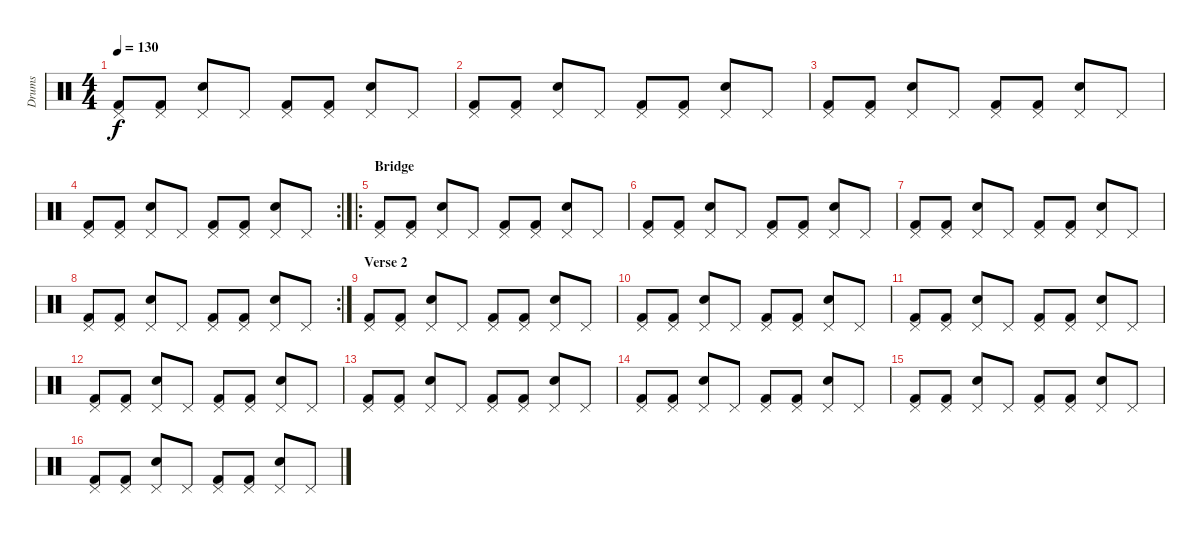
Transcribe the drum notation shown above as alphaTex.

\track ("Drums" "Drums") {instrument percussion}
\staff {score}
\articulation defaults
\ts (4 4)
\tempo 130
\clef neutral
\ks c
("Pedal Hi-Hat (hit)" "Kick (hit) 2").8{dy f} ("Pedal Hi-Hat (hit)" "Kick (hit) 2").8 ("Pedal Hi-Hat (hit)" "Snare (hit) 2").8 "Pedal Hi-Hat (hit)".8 ("Pedal Hi-Hat (hit)" "Kick (hit) 2").8 ("Pedal Hi-Hat (hit)" "Kick (hit) 2").8 ("Pedal Hi-Hat (hit)" "Snare (hit) 2").8 "Pedal Hi-Hat (hit)".8 |
("Pedal Hi-Hat (hit)" "Kick (hit) 2").8 ("Pedal Hi-Hat (hit)" "Kick (hit) 2").8 ("Pedal Hi-Hat (hit)" "Snare (hit) 2").8 "Pedal Hi-Hat (hit)".8 ("Pedal Hi-Hat (hit)" "Kick (hit) 2").8 ("Pedal Hi-Hat (hit)" "Kick (hit) 2").8 ("Pedal Hi-Hat (hit)" "Snare (hit) 2").8 "Pedal Hi-Hat (hit)".8 |
("Pedal Hi-Hat (hit)" "Kick (hit) 2").8 ("Pedal Hi-Hat (hit)" "Kick (hit) 2").8 ("Pedal Hi-Hat (hit)" "Snare (hit) 2").8 "Pedal Hi-Hat (hit)".8 ("Pedal Hi-Hat (hit)" "Kick (hit) 2").8 ("Pedal Hi-Hat (hit)" "Kick (hit) 2").8 ("Pedal Hi-Hat (hit)" "Snare (hit) 2").8 "Pedal Hi-Hat (hit)".8 |
\rc 2
("Pedal Hi-Hat (hit)" "Kick (hit) 2").8 ("Pedal Hi-Hat (hit)" "Kick (hit) 2").8 ("Pedal Hi-Hat (hit)" "Snare (hit) 2").8 "Pedal Hi-Hat (hit)".8 ("Pedal Hi-Hat (hit)" "Kick (hit) 2").8 ("Pedal Hi-Hat (hit)" "Kick (hit) 2").8 ("Pedal Hi-Hat (hit)" "Snare (hit) 2").8 "Pedal Hi-Hat (hit)".8 |
\ro
\section ("" "Bridge")
("Pedal Hi-Hat (hit)" "Kick (hit) 2").8 ("Pedal Hi-Hat (hit)" "Kick (hit) 2").8 ("Pedal Hi-Hat (hit)" "Snare (hit) 2").8 "Pedal Hi-Hat (hit)".8 ("Pedal Hi-Hat (hit)" "Kick (hit) 2").8 ("Pedal Hi-Hat (hit)" "Kick (hit) 2").8 ("Pedal Hi-Hat (hit)" "Snare (hit) 2").8 "Pedal Hi-Hat (hit)".8 |
("Pedal Hi-Hat (hit)" "Kick (hit) 2").8 ("Pedal Hi-Hat (hit)" "Kick (hit) 2").8 ("Pedal Hi-Hat (hit)" "Snare (hit) 2").8 "Pedal Hi-Hat (hit)".8 ("Pedal Hi-Hat (hit)" "Kick (hit) 2").8 ("Pedal Hi-Hat (hit)" "Kick (hit) 2").8 ("Pedal Hi-Hat (hit)" "Snare (hit) 2").8 "Pedal Hi-Hat (hit)".8 |
("Pedal Hi-Hat (hit)" "Kick (hit) 2").8 ("Pedal Hi-Hat (hit)" "Kick (hit) 2").8 ("Pedal Hi-Hat (hit)" "Snare (hit) 2").8 "Pedal Hi-Hat (hit)".8 ("Pedal Hi-Hat (hit)" "Kick (hit) 2").8 ("Pedal Hi-Hat (hit)" "Kick (hit) 2").8 ("Pedal Hi-Hat (hit)" "Snare (hit) 2").8 "Pedal Hi-Hat (hit)".8 |
\rc 2
("Pedal Hi-Hat (hit)" "Kick (hit) 2").8 ("Pedal Hi-Hat (hit)" "Kick (hit) 2").8 ("Pedal Hi-Hat (hit)" "Snare (hit) 2").8 "Pedal Hi-Hat (hit)".8 ("Pedal Hi-Hat (hit)" "Kick (hit) 2").8 ("Pedal Hi-Hat (hit)" "Kick (hit) 2").8 ("Pedal Hi-Hat (hit)" "Snare (hit) 2").8 "Pedal Hi-Hat (hit)".8 |
\section ("" "Verse 2")
("Pedal Hi-Hat (hit)" "Kick (hit) 2").8 ("Pedal Hi-Hat (hit)" "Kick (hit) 2").8 ("Pedal Hi-Hat (hit)" "Snare (hit) 2").8 "Pedal Hi-Hat (hit)".8 ("Pedal Hi-Hat (hit)" "Kick (hit) 2").8 ("Pedal Hi-Hat (hit)" "Kick (hit) 2").8 ("Pedal Hi-Hat (hit)" "Snare (hit) 2").8 "Pedal Hi-Hat (hit)".8 |
("Pedal Hi-Hat (hit)" "Kick (hit) 2").8 ("Pedal Hi-Hat (hit)" "Kick (hit) 2").8 ("Pedal Hi-Hat (hit)" "Snare (hit) 2").8 "Pedal Hi-Hat (hit)".8 ("Pedal Hi-Hat (hit)" "Kick (hit) 2").8 ("Pedal Hi-Hat (hit)" "Kick (hit) 2").8 ("Pedal Hi-Hat (hit)" "Snare (hit) 2").8 "Pedal Hi-Hat (hit)".8 |
("Pedal Hi-Hat (hit)" "Kick (hit) 2").8 ("Pedal Hi-Hat (hit)" "Kick (hit) 2").8 ("Pedal Hi-Hat (hit)" "Snare (hit) 2").8 "Pedal Hi-Hat (hit)".8 ("Pedal Hi-Hat (hit)" "Kick (hit) 2").8 ("Pedal Hi-Hat (hit)" "Kick (hit) 2").8 ("Pedal Hi-Hat (hit)" "Snare (hit) 2").8 "Pedal Hi-Hat (hit)".8 |
("Pedal Hi-Hat (hit)" "Kick (hit) 2").8 ("Pedal Hi-Hat (hit)" "Kick (hit) 2").8 ("Pedal Hi-Hat (hit)" "Snare (hit) 2").8 "Pedal Hi-Hat (hit)".8 ("Pedal Hi-Hat (hit)" "Kick (hit) 2").8 ("Pedal Hi-Hat (hit)" "Kick (hit) 2").8 ("Pedal Hi-Hat (hit)" "Snare (hit) 2").8 "Pedal Hi-Hat (hit)".8 |
("Pedal Hi-Hat (hit)" "Kick (hit) 2").8 ("Pedal Hi-Hat (hit)" "Kick (hit) 2").8 ("Pedal Hi-Hat (hit)" "Snare (hit) 2").8 "Pedal Hi-Hat (hit)".8 ("Pedal Hi-Hat (hit)" "Kick (hit) 2").8 ("Pedal Hi-Hat (hit)" "Kick (hit) 2").8 ("Pedal Hi-Hat (hit)" "Snare (hit) 2").8 "Pedal Hi-Hat (hit)".8 |
("Pedal Hi-Hat (hit)" "Kick (hit) 2").8 ("Pedal Hi-Hat (hit)" "Kick (hit) 2").8 ("Pedal Hi-Hat (hit)" "Snare (hit) 2").8 "Pedal Hi-Hat (hit)".8 ("Pedal Hi-Hat (hit)" "Kick (hit) 2").8 ("Pedal Hi-Hat (hit)" "Kick (hit) 2").8 ("Pedal Hi-Hat (hit)" "Snare (hit) 2").8 "Pedal Hi-Hat (hit)".8 |
("Pedal Hi-Hat (hit)" "Kick (hit) 2").8 ("Pedal Hi-Hat (hit)" "Kick (hit) 2").8 ("Pedal Hi-Hat (hit)" "Snare (hit) 2").8 "Pedal Hi-Hat (hit)".8 ("Pedal Hi-Hat (hit)" "Kick (hit) 2").8 ("Pedal Hi-Hat (hit)" "Kick (hit) 2").8 ("Pedal Hi-Hat (hit)" "Snare (hit) 2").8 "Pedal Hi-Hat (hit)".8 |
("Pedal Hi-Hat (hit)" "Kick (hit) 2").8 ("Pedal Hi-Hat (hit)" "Kick (hit) 2").8 ("Pedal Hi-Hat (hit)" "Snare (hit) 2").8 "Pedal Hi-Hat (hit)".8 ("Pedal Hi-Hat (hit)" "Kick (hit) 2").8 ("Pedal Hi-Hat (hit)" "Kick (hit) 2").8 ("Pedal Hi-Hat (hit)" "Snare (hit) 2").8 "Pedal Hi-Hat (hit)".8
